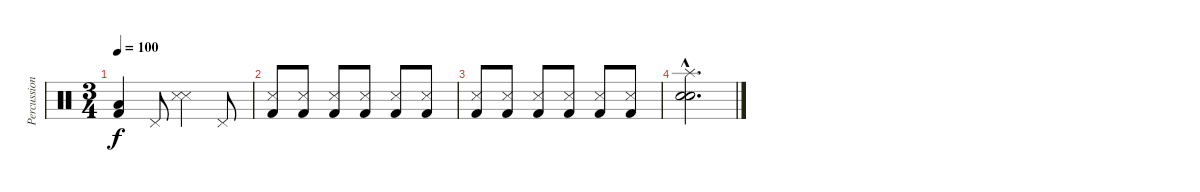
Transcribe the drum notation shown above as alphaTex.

\track ("Percussions" "Percussion") {instrument percussion}
\staff {score}
\articulation defaults
\ts (3 4)
\tempo 100
\clef neutral
\ks c
("Kick (hit) 2" "Low Floor Tom (hit)").4{dy f} "Pedal Hi-Hat (hit)".8 ("Snare (side stick) 3" "Snare (side stick) 3").4 "Pedal Hi-Hat (hit)".8 |
("Snare (side stick) 3" "Kick (hit) 2").8 ("Snare (side stick) 3" "Kick (hit) 2").8 ("Snare (side stick) 3" "Kick (hit) 2").8 ("Snare (side stick) 3" "Kick (hit) 2").8 ("Snare (side stick) 3" "Kick (hit) 2").8 ("Snare (side stick) 3" "Kick (hit) 2").8 |
("Snare (side stick) 3" "Kick (hit) 2").8 ("Snare (side stick) 3" "Kick (hit) 2").8 ("Snare (side stick) 3" "Kick (hit) 2").8 ("Snare (side stick) 3" "Kick (hit) 2").8 ("Snare (side stick) 3" "Kick (hit) 2").8 ("Snare (side stick) 3" "Kick (hit) 2").8 |
("Splash (hit)"{hac} "Snare (hit) 2"{hac} "Electric Snare (hit)"{hac}).2{d}
